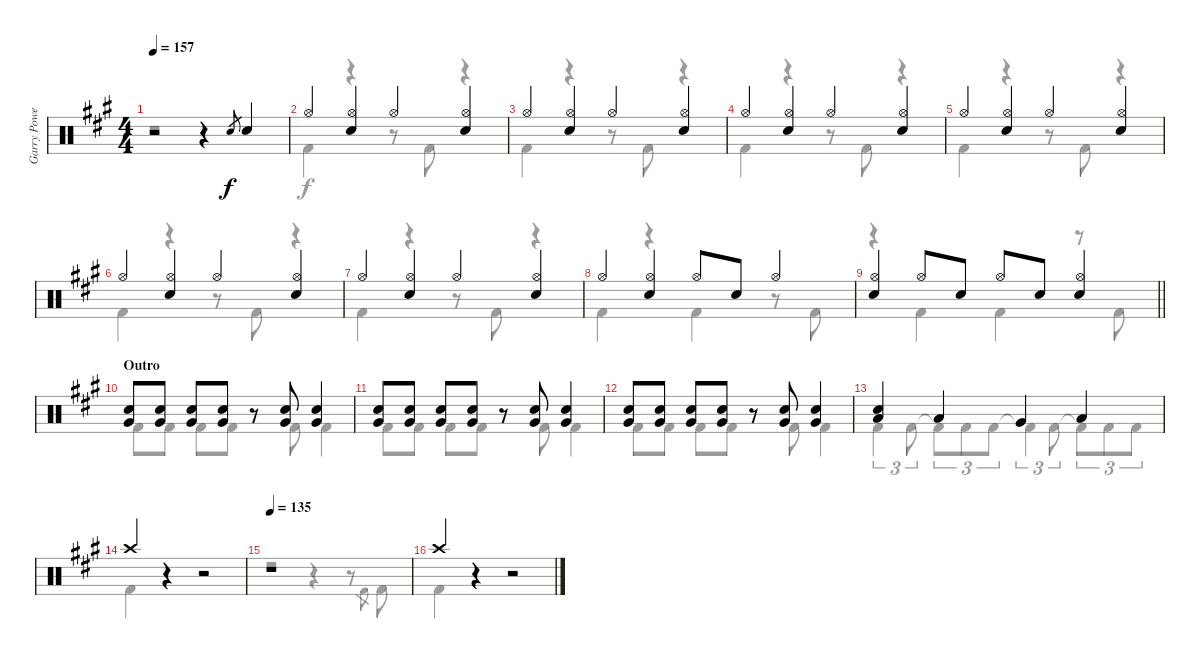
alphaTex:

\track ("Garry Powell" "Garry Powe") {instrument percussion}
\staff {score}
\articulation defaults
\voice
\ts (4 4)
\tempo 157
\clef neutral
\ks a
r.2{dy ff} r.4 "Electric Snare (hit)".8{gr dy f} "Electric Snare (hit)".4 |
"Hi-Hat (open)".4 ("Hi-Hat (open)" "Electric Snare (hit)").4 "Hi-Hat (open)".4 ("Hi-Hat (open)" "Electric Snare (hit)").4 |
"Hi-Hat (open)".4 ("Hi-Hat (open)" "Electric Snare (hit)").4 "Hi-Hat (open)".4 ("Hi-Hat (open)" "Electric Snare (hit)").4 |
"Hi-Hat (open)".4 ("Hi-Hat (open)" "Electric Snare (hit)").4 "Hi-Hat (open)".4 ("Hi-Hat (open)" "Electric Snare (hit)").4 |
"Hi-Hat (open)".4 ("Hi-Hat (open)" "Electric Snare (hit)").4 "Hi-Hat (open)".4 ("Hi-Hat (open)" "Electric Snare (hit)").4 |
"Hi-Hat (open)".4 ("Hi-Hat (open)" "Electric Snare (hit)").4 "Hi-Hat (open)".4 ("Hi-Hat (open)" "Electric Snare (hit)").4 |
"Hi-Hat (open)".4 ("Hi-Hat (open)" "Electric Snare (hit)").4 "Hi-Hat (open)".4 ("Hi-Hat (open)" "Electric Snare (hit)").4 |
"Hi-Hat (open)".4 ("Hi-Hat (open)" "Electric Snare (hit)").4 "Hi-Hat (open)".8 "Electric Snare (hit)".8 "Hi-Hat (open)".4 |
\barLineRight lightlight
("Hi-Hat (open)" "Electric Snare (hit)").4 "Hi-Hat (open)".8 "Electric Snare (hit)".8 "Hi-Hat (open)".8 "Electric Snare (hit)".8 ("Hi-Hat (open)" "Electric Snare (hit)").4 |
\section ("" "Outro")
("Very Low Tom (hit)" "Electric Snare (hit)").8 ("Very Low Tom (hit)" "Electric Snare (hit)").8 ("Very Low Tom (hit)" "Electric Snare (hit)").8 ("Very Low Tom (hit)" "Electric Snare (hit)").8 r.8 ("Very Low Tom (hit)" "Electric Snare (hit)").8 ("Very Low Tom (hit)" "Electric Snare (hit)").4 |
("Very Low Tom (hit)" "Electric Snare (hit)").8 ("Very Low Tom (hit)" "Electric Snare (hit)").8 ("Very Low Tom (hit)" "Electric Snare (hit)").8 ("Very Low Tom (hit)" "Electric Snare (hit)").8 r.8 ("Very Low Tom (hit)" "Electric Snare (hit)").8 ("Very Low Tom (hit)" "Electric Snare (hit)").4 |
("Very Low Tom (hit)" "Electric Snare (hit)").8 ("Very Low Tom (hit)" "Electric Snare (hit)").8 ("Very Low Tom (hit)" "Electric Snare (hit)").8 ("Very Low Tom (hit)" "Electric Snare (hit)").8 r.8 ("Very Low Tom (hit)" "Electric Snare (hit)").8 ("Very Low Tom (hit)" "Electric Snare (hit)").4 |
("Low Tom (hit)" "Electric Snare (hit)").4 "Low Tom (hit)".4 "Very Low Tom (hit)".4 "Low Floor Tom (hit)".4 |
"Crash high (hit)".4 r.4 r.2 |
\tempo 135
r.1 |
"Crash high (hit)".4 r.4 r.2
\voice
\clef neutral
\ottava regular
\simile none
\ks a
r.1{dy ff} |
"Kick (hit) 2".4{dy f} r.4 r.8 "Kick (hit) 2".8 r.4 |
"Kick (hit) 2".4 r.4 r.8 "Kick (hit) 2".8 r.4 |
"Kick (hit) 2".4 r.4 r.8 "Kick (hit) 2".8 r.4 |
"Kick (hit) 2".4 r.4 r.8 "Kick (hit) 2".8 r.4 |
"Kick (hit) 2".4 r.4 r.8 "Kick (hit) 2".8 r.4 |
"Kick (hit) 2".4 r.4 r.8 "Kick (hit) 2".8 r.4 |
"Kick (hit) 2".4 r.4 "Kick (hit) 2".4 r.8 "Kick (hit) 2".8 |
\barLineRight lightlight
r.4 "Kick (hit) 2".4 "Kick (hit) 2".4 r.8 "Kick (hit) 2".8 |
"Kick (hit) 2".8 "Kick (hit) 2".8 "Kick (hit) 2".8 "Kick (hit) 2".8 r.8 "Kick (hit) 2".8 "Kick (hit) 2".4 |
"Kick (hit) 2".8 "Kick (hit) 2".8 "Kick (hit) 2".8 "Kick (hit) 2".8 r.8 "Kick (hit) 2".8 "Kick (hit) 2".4 |
"Kick (hit) 2".8 "Kick (hit) 2".8 "Kick (hit) 2".8 "Kick (hit) 2".8 r.8 "Kick (hit) 2".8 "Kick (hit) 2".4 |
"Kick (hit) 2".4{tu (3 2)} "Kick (hit) 2".8{tu (3 2)} "Kick (hit) 2"{t}.8{tu (3 2)} "Kick (hit) 2".8{tu (3 2)} "Kick (hit) 2".8{tu (3 2)} "Kick (hit) 2"{t}.4{tu (3 2)} "Kick (hit) 2".8{tu (3 2)} "Kick (hit) 2"{t}.8{tu (3 2)} "Kick (hit) 2".8{tu (3 2)} "Kick (hit) 2".8{tu (3 2)} |
"Kick (hit) 2".4 r.4 r.2 |
r.2 r.4 r.8 "Kick (hit) 2".8{gr} "Kick (hit) 2".8 |
"Kick (hit) 2".4 r.4 r.2
